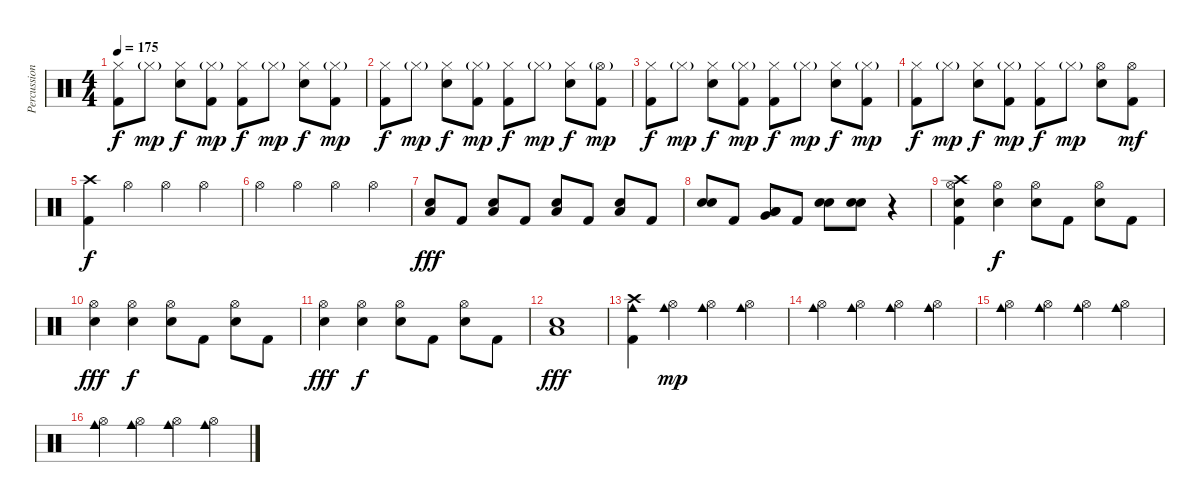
\track ("Percussion" "Percussion") {instrument percussion}
\staff {score}
\articulation defaults
\ts (4 4)
\tempo 175
\clef neutral
\ks c
("Hi-Hat (closed)" "Kick (hit) 2").8{dy f} "Hi-Hat (closed)"{g}.8{dy mp} ("Hi-Hat (closed)" "Snare (hit) 2").8{dy f} ("Hi-Hat (closed)"{g} "Kick (hit) 2").8{dy mp} ("Hi-Hat (closed)" "Kick (hit) 2").8{dy f} "Hi-Hat (closed)"{g}.8{dy mp} ("Hi-Hat (closed)" "Snare (hit) 2").8{dy f} ("Hi-Hat (closed)"{g} "Kick (hit) 2").8{dy mp} |
("Hi-Hat (closed)" "Kick (hit) 2").8{dy f} "Hi-Hat (closed)"{g}.8{dy mp} ("Hi-Hat (closed)" "Snare (hit) 2").8{dy f} ("Hi-Hat (closed)"{g} "Kick (hit) 2").8{dy mp} ("Hi-Hat (closed)" "Kick (hit) 2").8{dy f} "Hi-Hat (closed)"{g}.8{dy mp} ("Hi-Hat (closed)" "Snare (hit) 2").8{dy f} ("Hi-Hat (open)"{g} "Kick (hit) 2").8{dy mp} |
("Hi-Hat (closed)" "Kick (hit) 2").8{dy f} "Hi-Hat (closed)"{g}.8{dy mp} ("Hi-Hat (closed)" "Snare (hit) 2").8{dy f} ("Hi-Hat (closed)"{g} "Kick (hit) 2").8{dy mp} ("Hi-Hat (closed)" "Kick (hit) 2").8{dy f} "Hi-Hat (closed)"{g}.8{dy mp} ("Hi-Hat (closed)" "Snare (hit) 2").8{dy f} ("Hi-Hat (closed)"{g} "Kick (hit) 2").8{dy mp} |
("Hi-Hat (closed)" "Kick (hit) 2").8{dy f} "Hi-Hat (closed)"{g}.8{dy mp} ("Hi-Hat (closed)" "Snare (hit) 2").8{dy f} ("Hi-Hat (closed)"{g} "Kick (hit) 2").8{dy mp} ("Hi-Hat (closed)" "Kick (hit) 2").8{dy f} "Hi-Hat (closed)"{g}.8{dy mp} ("Hi-Hat (open)" "Snare (hit) 2").8 ("Hi-Hat (open)" "Kick (hit) 2").8{dy mf} |
("Crash high (hit)" "Kick (hit) 2").4{dy f} "Hi-Hat (open)".4 "Hi-Hat (open)".4 "Hi-Hat (open)".4 |
"Hi-Hat (open)".4 "Hi-Hat (open)".4 "Hi-Hat (open)".4 "Hi-Hat (open)".4 |
("Low Floor Tom (hit)" "Snare (hit) 2").8{dy fff} "Kick (hit) 2".8 ("Low Floor Tom (hit)" "Snare (hit) 2").8 "Kick (hit) 2".8 ("Low Floor Tom (hit)" "Snare (hit) 2").8 "Kick (hit) 2".8 ("Low Floor Tom (hit)" "Snare (hit) 2").8 "Kick (hit) 2".8 |
("Electric Snare (hit)" "Snare (hit) 2").8 "Kick (hit) 2".8 ("Low Tom (hit)" "Low Floor Tom (hit)" "Very Low Tom (hit)").8 "Kick (hit) 2".8 ("Electric Snare (hit)" "Snare (hit) 2").8 ("Electric Snare (hit)" "Snare (hit) 2").8 r.4 |
("Hi-Hat (open)" "Crash high (hit)" "Snare (hit) 2" "Kick (hit) 2").4 ("Hi-Hat (open)" "Snare (hit) 2").4{dy f} ("Hi-Hat (open)" "Snare (hit) 2").8 "Kick (hit) 2".8 ("Hi-Hat (open)" "Snare (hit) 2").8 "Kick (hit) 2".8 |
("Hi-Hat (open)" "Snare (hit) 2").4{dy fff} ("Hi-Hat (open)" "Snare (hit) 2").4{dy f} ("Hi-Hat (open)" "Snare (hit) 2").8 "Kick (hit) 2".8 ("Hi-Hat (open)" "Snare (hit) 2").8 "Kick (hit) 2".8 |
("Hi-Hat (open)" "Snare (hit) 2").4{dy fff} ("Hi-Hat (open)" "Snare (hit) 2").4{dy f} ("Hi-Hat (open)" "Snare (hit) 2").8 "Kick (hit) 2".8 ("Hi-Hat (open)" "Snare (hit) 2").8 "Kick (hit) 2".8 |
("Low Floor Tom (hit)" "Snare (hit) 2").1{dy fff} |
("Crash high (hit)" "Cowbell medium (hit)" "Kick (hit) 2").4 ("Hi-Hat (open)" "Cowbell medium (hit)").4{dy mp} ("Hi-Hat (open)" "Cowbell medium (hit)").4 ("Hi-Hat (open)" "Cowbell medium (hit)").4 |
("Hi-Hat (open)" "Cowbell medium (hit)").4 ("Hi-Hat (open)" "Cowbell medium (hit)").4 ("Hi-Hat (open)" "Cowbell medium (hit)").4 ("Hi-Hat (open)" "Cowbell medium (hit)").4 |
("Hi-Hat (open)" "Cowbell medium (hit)").4 ("Hi-Hat (open)" "Cowbell medium (hit)").4 ("Hi-Hat (open)" "Cowbell medium (hit)").4 ("Hi-Hat (open)" "Cowbell medium (hit)").4 |
("Hi-Hat (open)" "Cowbell medium (hit)").4 ("Hi-Hat (open)" "Cowbell medium (hit)").4 ("Hi-Hat (open)" "Cowbell medium (hit)").4 ("Hi-Hat (open)" "Cowbell medium (hit)").4
